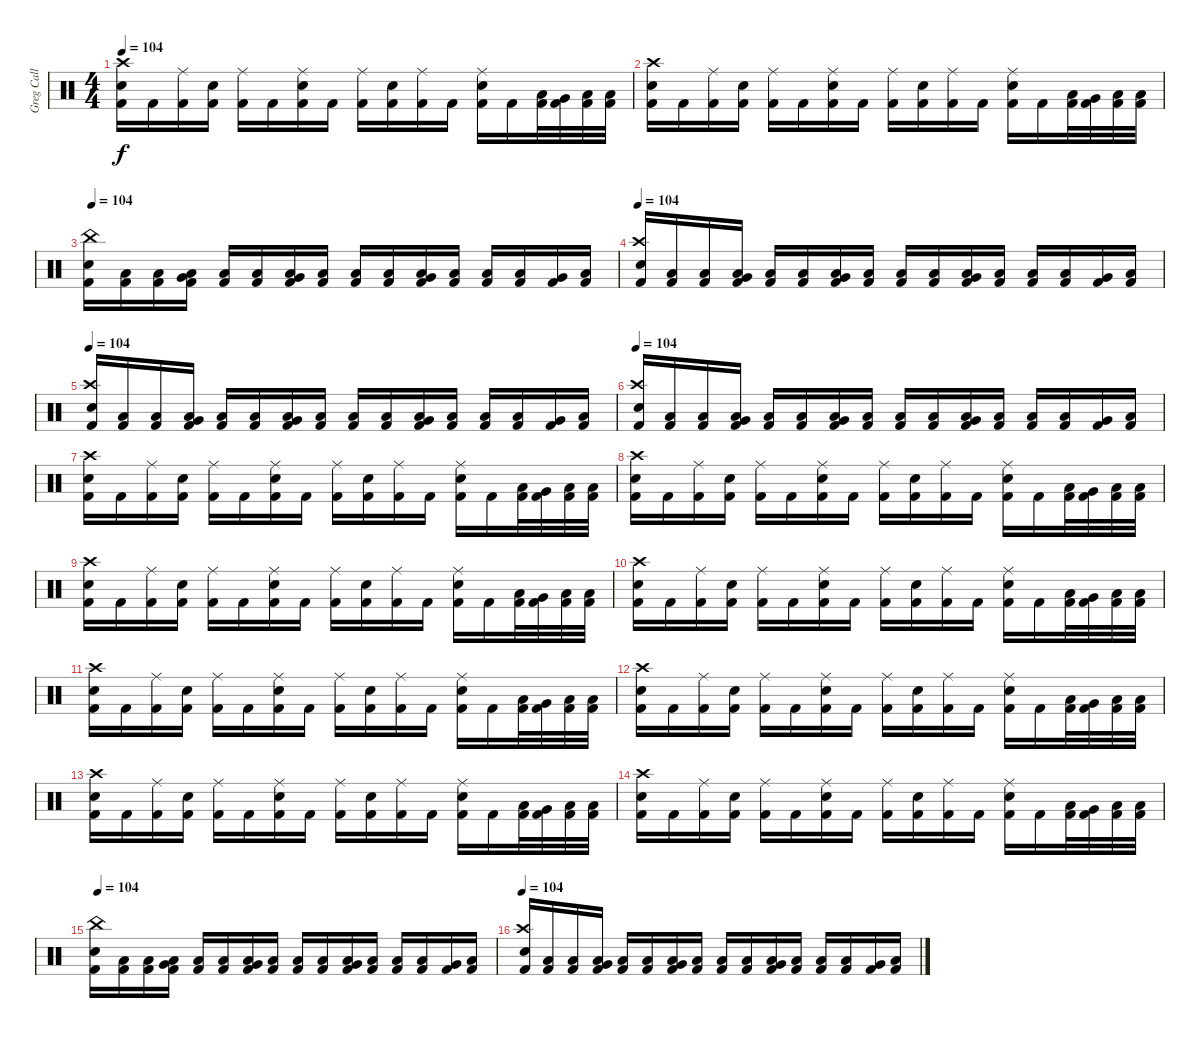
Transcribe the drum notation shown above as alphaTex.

\track ("Greg Call (Drums)" "Greg Call ") {instrument percussion}
\staff {score}
\articulation defaults
\ts (4 4)
\tempo 104
\clef neutral
\ks c
("Snare (hit) 2" "Crash high (hit)" "Kick (hit) 2").16{dy f} "Kick (hit) 2".16 ("Ride (middle)" "Kick (hit) 2").16 ("Snare (hit) 2" "Kick (hit) 2").16 ("Ride (middle)" "Kick (hit) 2").16 "Kick (hit) 2".16 ("Ride (middle)" "Snare (hit) 2" "Kick (hit) 2").16 "Kick (hit) 2".16 ("Ride (middle)" "Kick (hit) 2").16 ("Snare (hit) 2" "Kick (hit) 2").16 ("Ride (middle)" "Kick (hit) 2").16 "Kick (hit) 2".16 ("Snare (hit) 2" "Ride (middle)" "Kick (hit) 2").16 "Kick (hit) 2".16 ("Low Tom (hit)" "Kick (hit) 2").32 ("Very Low Tom (hit)" "Kick (hit) 2").32 ("Low Floor Tom (hit)" "Kick (hit) 2").32 ("Low Floor Tom (hit)" "Kick (hit) 2").32 |
("Snare (hit) 2" "Crash high (hit)" "Kick (hit) 2").16 "Kick (hit) 2".16 ("Ride (middle)" "Kick (hit) 2").16 ("Snare (hit) 2" "Kick (hit) 2").16 ("Ride (middle)" "Kick (hit) 2").16 "Kick (hit) 2".16 ("Ride (middle)" "Snare (hit) 2" "Kick (hit) 2").16 "Kick (hit) 2".16 ("Ride (middle)" "Kick (hit) 2").16 ("Snare (hit) 2" "Kick (hit) 2").16 ("Ride (middle)" "Kick (hit) 2").16 "Kick (hit) 2".16 ("Snare (hit) 2" "Ride (middle)" "Kick (hit) 2").16 "Kick (hit) 2".16 ("Low Tom (hit)" "Kick (hit) 2").32 ("Very Low Tom (hit)" "Kick (hit) 2").32 ("Low Floor Tom (hit)" "Kick (hit) 2").32 ("Low Floor Tom (hit)" "Kick (hit) 2").32 |
\tempo 104
("Snare (hit) 2" "China (hit)" "Kick (hit) 2").16 ("Low Floor Tom (hit)" "Kick (hit) 2").16 ("Low Floor Tom (hit)" "Kick (hit) 2").16 ("Low Tom (hit)" "Very Low Tom (hit)" "Kick (hit) 2").16 ("Low Floor Tom (hit)" "Kick (hit) 2").16 ("Low Floor Tom (hit)" "Kick (hit) 2").16 ("Low Floor Tom (hit)" "Very Low Tom (hit)" "Kick (hit) 2").16 ("Low Floor Tom (hit)" "Kick (hit) 2").16 ("Low Floor Tom (hit)" "Kick (hit) 2").16 ("Low Floor Tom (hit)" "Kick (hit) 2").16 ("Low Floor Tom (hit)" "Very Low Tom (hit)" "Kick (hit) 2").16 ("Low Floor Tom (hit)" "Kick (hit) 2").16 ("Low Floor Tom (hit)" "Kick (hit) 2").16 ("Low Tom (hit)" "Kick (hit) 2").16 ("Very Low Tom (hit)" "Kick (hit) 2").16 ("Low Floor Tom (hit)" "Kick (hit) 2").16 |
\tempo 104
("Snare (hit) 2" "Crash high (hit)" "Kick (hit) 2").16 ("Low Floor Tom (hit)" "Kick (hit) 2").16 ("Low Floor Tom (hit)" "Kick (hit) 2").16 ("Low Tom (hit)" "Very Low Tom (hit)" "Kick (hit) 2").16 ("Low Floor Tom (hit)" "Kick (hit) 2").16 ("Low Floor Tom (hit)" "Kick (hit) 2").16 ("Low Floor Tom (hit)" "Very Low Tom (hit)" "Kick (hit) 2").16 ("Low Floor Tom (hit)" "Kick (hit) 2").16 ("Low Floor Tom (hit)" "Kick (hit) 2").16 ("Low Floor Tom (hit)" "Kick (hit) 2").16 ("Low Floor Tom (hit)" "Very Low Tom (hit)" "Kick (hit) 2").16 ("Low Floor Tom (hit)" "Kick (hit) 2").16 ("Low Floor Tom (hit)" "Kick (hit) 2").16 ("Low Tom (hit)" "Kick (hit) 2").16 ("Very Low Tom (hit)" "Kick (hit) 2").16 ("Low Floor Tom (hit)" "Kick (hit) 2").16 |
\tempo 104
("Snare (hit) 2" "Crash high (hit)" "Kick (hit) 2").16 ("Low Floor Tom (hit)" "Kick (hit) 2").16 ("Low Floor Tom (hit)" "Kick (hit) 2").16 ("Low Tom (hit)" "Very Low Tom (hit)" "Kick (hit) 2").16 ("Low Floor Tom (hit)" "Kick (hit) 2").16 ("Low Floor Tom (hit)" "Kick (hit) 2").16 ("Low Floor Tom (hit)" "Very Low Tom (hit)" "Kick (hit) 2").16 ("Low Floor Tom (hit)" "Kick (hit) 2").16 ("Low Floor Tom (hit)" "Kick (hit) 2").16 ("Low Floor Tom (hit)" "Kick (hit) 2").16 ("Low Floor Tom (hit)" "Very Low Tom (hit)" "Kick (hit) 2").16 ("Low Floor Tom (hit)" "Kick (hit) 2").16 ("Low Floor Tom (hit)" "Kick (hit) 2").16 ("Low Tom (hit)" "Kick (hit) 2").16 ("Very Low Tom (hit)" "Kick (hit) 2").16 ("Low Floor Tom (hit)" "Kick (hit) 2").16 |
\tempo 104
("Snare (hit) 2" "Crash high (hit)" "Kick (hit) 2").16 ("Low Floor Tom (hit)" "Kick (hit) 2").16 ("Low Floor Tom (hit)" "Kick (hit) 2").16 ("Low Tom (hit)" "Very Low Tom (hit)" "Kick (hit) 2").16 ("Low Floor Tom (hit)" "Kick (hit) 2").16 ("Low Floor Tom (hit)" "Kick (hit) 2").16 ("Low Floor Tom (hit)" "Very Low Tom (hit)" "Kick (hit) 2").16 ("Low Floor Tom (hit)" "Kick (hit) 2").16 ("Low Floor Tom (hit)" "Kick (hit) 2").16 ("Low Floor Tom (hit)" "Kick (hit) 2").16 ("Low Floor Tom (hit)" "Very Low Tom (hit)" "Kick (hit) 2").16 ("Low Floor Tom (hit)" "Kick (hit) 2").16 ("Low Floor Tom (hit)" "Kick (hit) 2").16 ("Low Tom (hit)" "Kick (hit) 2").16 ("Very Low Tom (hit)" "Kick (hit) 2").16 ("Low Floor Tom (hit)" "Kick (hit) 2").16 |
("Snare (hit) 2" "Crash high (hit)" "Kick (hit) 2").16 "Kick (hit) 2".16 ("Ride (middle)" "Kick (hit) 2").16 ("Snare (hit) 2" "Kick (hit) 2").16 ("Ride (middle)" "Kick (hit) 2").16 "Kick (hit) 2".16 ("Ride (middle)" "Snare (hit) 2" "Kick (hit) 2").16 "Kick (hit) 2".16 ("Ride (middle)" "Kick (hit) 2").16 ("Snare (hit) 2" "Kick (hit) 2").16 ("Ride (middle)" "Kick (hit) 2").16 "Kick (hit) 2".16 ("Snare (hit) 2" "Ride (middle)" "Kick (hit) 2").16 "Kick (hit) 2".16 ("Low Tom (hit)" "Kick (hit) 2").32 ("Very Low Tom (hit)" "Kick (hit) 2").32 ("Low Floor Tom (hit)" "Kick (hit) 2").32 ("Low Floor Tom (hit)" "Kick (hit) 2").32 |
("Snare (hit) 2" "Crash high (hit)" "Kick (hit) 2").16 "Kick (hit) 2".16 ("Ride (middle)" "Kick (hit) 2").16 ("Snare (hit) 2" "Kick (hit) 2").16 ("Ride (middle)" "Kick (hit) 2").16 "Kick (hit) 2".16 ("Ride (middle)" "Snare (hit) 2" "Kick (hit) 2").16 "Kick (hit) 2".16 ("Ride (middle)" "Kick (hit) 2").16 ("Snare (hit) 2" "Kick (hit) 2").16 ("Ride (middle)" "Kick (hit) 2").16 "Kick (hit) 2".16 ("Snare (hit) 2" "Ride (middle)" "Kick (hit) 2").16 "Kick (hit) 2".16 ("Low Tom (hit)" "Kick (hit) 2").32 ("Very Low Tom (hit)" "Kick (hit) 2").32 ("Low Floor Tom (hit)" "Kick (hit) 2").32 ("Low Floor Tom (hit)" "Kick (hit) 2").32 |
("Snare (hit) 2" "Crash high (hit)" "Kick (hit) 2").16 "Kick (hit) 2".16 ("Ride (middle)" "Kick (hit) 2").16 ("Snare (hit) 2" "Kick (hit) 2").16 ("Ride (middle)" "Kick (hit) 2").16 "Kick (hit) 2".16 ("Ride (middle)" "Snare (hit) 2" "Kick (hit) 2").16 "Kick (hit) 2".16 ("Ride (middle)" "Kick (hit) 2").16 ("Snare (hit) 2" "Kick (hit) 2").16 ("Ride (middle)" "Kick (hit) 2").16 "Kick (hit) 2".16 ("Snare (hit) 2" "Ride (middle)" "Kick (hit) 2").16 "Kick (hit) 2".16 ("Low Tom (hit)" "Kick (hit) 2").32 ("Very Low Tom (hit)" "Kick (hit) 2").32 ("Low Floor Tom (hit)" "Kick (hit) 2").32 ("Low Floor Tom (hit)" "Kick (hit) 2").32 |
("Snare (hit) 2" "Crash high (hit)" "Kick (hit) 2").16 "Kick (hit) 2".16 ("Ride (middle)" "Kick (hit) 2").16 ("Snare (hit) 2" "Kick (hit) 2").16 ("Ride (middle)" "Kick (hit) 2").16 "Kick (hit) 2".16 ("Ride (middle)" "Snare (hit) 2" "Kick (hit) 2").16 "Kick (hit) 2".16 ("Ride (middle)" "Kick (hit) 2").16 ("Snare (hit) 2" "Kick (hit) 2").16 ("Ride (middle)" "Kick (hit) 2").16 "Kick (hit) 2".16 ("Snare (hit) 2" "Ride (middle)" "Kick (hit) 2").16 "Kick (hit) 2".16 ("Low Tom (hit)" "Kick (hit) 2").32 ("Very Low Tom (hit)" "Kick (hit) 2").32 ("Low Floor Tom (hit)" "Kick (hit) 2").32 ("Low Floor Tom (hit)" "Kick (hit) 2").32 |
("Snare (hit) 2" "Crash high (hit)" "Kick (hit) 2").16 "Kick (hit) 2".16 ("Ride (middle)" "Kick (hit) 2").16 ("Snare (hit) 2" "Kick (hit) 2").16 ("Ride (middle)" "Kick (hit) 2").16 "Kick (hit) 2".16 ("Ride (middle)" "Snare (hit) 2" "Kick (hit) 2").16 "Kick (hit) 2".16 ("Ride (middle)" "Kick (hit) 2").16 ("Snare (hit) 2" "Kick (hit) 2").16 ("Ride (middle)" "Kick (hit) 2").16 "Kick (hit) 2".16 ("Snare (hit) 2" "Ride (middle)" "Kick (hit) 2").16 "Kick (hit) 2".16 ("Low Tom (hit)" "Kick (hit) 2").32 ("Very Low Tom (hit)" "Kick (hit) 2").32 ("Low Floor Tom (hit)" "Kick (hit) 2").32 ("Low Floor Tom (hit)" "Kick (hit) 2").32 |
("Snare (hit) 2" "Crash high (hit)" "Kick (hit) 2").16 "Kick (hit) 2".16 ("Ride (middle)" "Kick (hit) 2").16 ("Snare (hit) 2" "Kick (hit) 2").16 ("Ride (middle)" "Kick (hit) 2").16 "Kick (hit) 2".16 ("Ride (middle)" "Snare (hit) 2" "Kick (hit) 2").16 "Kick (hit) 2".16 ("Ride (middle)" "Kick (hit) 2").16 ("Snare (hit) 2" "Kick (hit) 2").16 ("Ride (middle)" "Kick (hit) 2").16 "Kick (hit) 2".16 ("Snare (hit) 2" "Ride (middle)" "Kick (hit) 2").16 "Kick (hit) 2".16 ("Low Tom (hit)" "Kick (hit) 2").32 ("Very Low Tom (hit)" "Kick (hit) 2").32 ("Low Floor Tom (hit)" "Kick (hit) 2").32 ("Low Floor Tom (hit)" "Kick (hit) 2").32 |
("Snare (hit) 2" "Crash high (hit)" "Kick (hit) 2").16 "Kick (hit) 2".16 ("Ride (middle)" "Kick (hit) 2").16 ("Snare (hit) 2" "Kick (hit) 2").16 ("Ride (middle)" "Kick (hit) 2").16 "Kick (hit) 2".16 ("Ride (middle)" "Snare (hit) 2" "Kick (hit) 2").16 "Kick (hit) 2".16 ("Ride (middle)" "Kick (hit) 2").16 ("Snare (hit) 2" "Kick (hit) 2").16 ("Ride (middle)" "Kick (hit) 2").16 "Kick (hit) 2".16 ("Snare (hit) 2" "Ride (middle)" "Kick (hit) 2").16 "Kick (hit) 2".16 ("Low Tom (hit)" "Kick (hit) 2").32 ("Very Low Tom (hit)" "Kick (hit) 2").32 ("Low Floor Tom (hit)" "Kick (hit) 2").32 ("Low Floor Tom (hit)" "Kick (hit) 2").32 |
("Snare (hit) 2" "Crash high (hit)" "Kick (hit) 2").16 "Kick (hit) 2".16 ("Ride (middle)" "Kick (hit) 2").16 ("Snare (hit) 2" "Kick (hit) 2").16 ("Ride (middle)" "Kick (hit) 2").16 "Kick (hit) 2".16 ("Ride (middle)" "Snare (hit) 2" "Kick (hit) 2").16 "Kick (hit) 2".16 ("Ride (middle)" "Kick (hit) 2").16 ("Snare (hit) 2" "Kick (hit) 2").16 ("Ride (middle)" "Kick (hit) 2").16 "Kick (hit) 2".16 ("Snare (hit) 2" "Ride (middle)" "Kick (hit) 2").16 "Kick (hit) 2".16 ("Low Tom (hit)" "Kick (hit) 2").32 ("Very Low Tom (hit)" "Kick (hit) 2").32 ("Low Floor Tom (hit)" "Kick (hit) 2").32 ("Low Floor Tom (hit)" "Kick (hit) 2").32 |
\tempo 104
("Snare (hit) 2" "China (hit)" "Kick (hit) 2").16 ("Low Floor Tom (hit)" "Kick (hit) 2").16 ("Low Floor Tom (hit)" "Kick (hit) 2").16 ("Low Tom (hit)" "Very Low Tom (hit)" "Kick (hit) 2").16 ("Low Floor Tom (hit)" "Kick (hit) 2").16 ("Low Floor Tom (hit)" "Kick (hit) 2").16 ("Low Floor Tom (hit)" "Very Low Tom (hit)" "Kick (hit) 2").16 ("Low Floor Tom (hit)" "Kick (hit) 2").16 ("Low Floor Tom (hit)" "Kick (hit) 2").16 ("Low Floor Tom (hit)" "Kick (hit) 2").16 ("Low Floor Tom (hit)" "Very Low Tom (hit)" "Kick (hit) 2").16 ("Low Floor Tom (hit)" "Kick (hit) 2").16 ("Low Floor Tom (hit)" "Kick (hit) 2").16 ("Low Tom (hit)" "Kick (hit) 2").16 ("Very Low Tom (hit)" "Kick (hit) 2").16 ("Low Floor Tom (hit)" "Kick (hit) 2").16 |
\tempo 104
("Snare (hit) 2" "Crash high (hit)" "Kick (hit) 2").16 ("Low Floor Tom (hit)" "Kick (hit) 2").16 ("Low Floor Tom (hit)" "Kick (hit) 2").16 ("Low Tom (hit)" "Very Low Tom (hit)" "Kick (hit) 2").16 ("Low Floor Tom (hit)" "Kick (hit) 2").16 ("Low Floor Tom (hit)" "Kick (hit) 2").16 ("Low Floor Tom (hit)" "Very Low Tom (hit)" "Kick (hit) 2").16 ("Low Floor Tom (hit)" "Kick (hit) 2").16 ("Low Floor Tom (hit)" "Kick (hit) 2").16 ("Low Floor Tom (hit)" "Kick (hit) 2").16 ("Low Floor Tom (hit)" "Very Low Tom (hit)" "Kick (hit) 2").16 ("Low Floor Tom (hit)" "Kick (hit) 2").16 ("Low Floor Tom (hit)" "Kick (hit) 2").16 ("Low Tom (hit)" "Kick (hit) 2").16 ("Very Low Tom (hit)" "Kick (hit) 2").16 ("Low Floor Tom (hit)" "Kick (hit) 2").16
